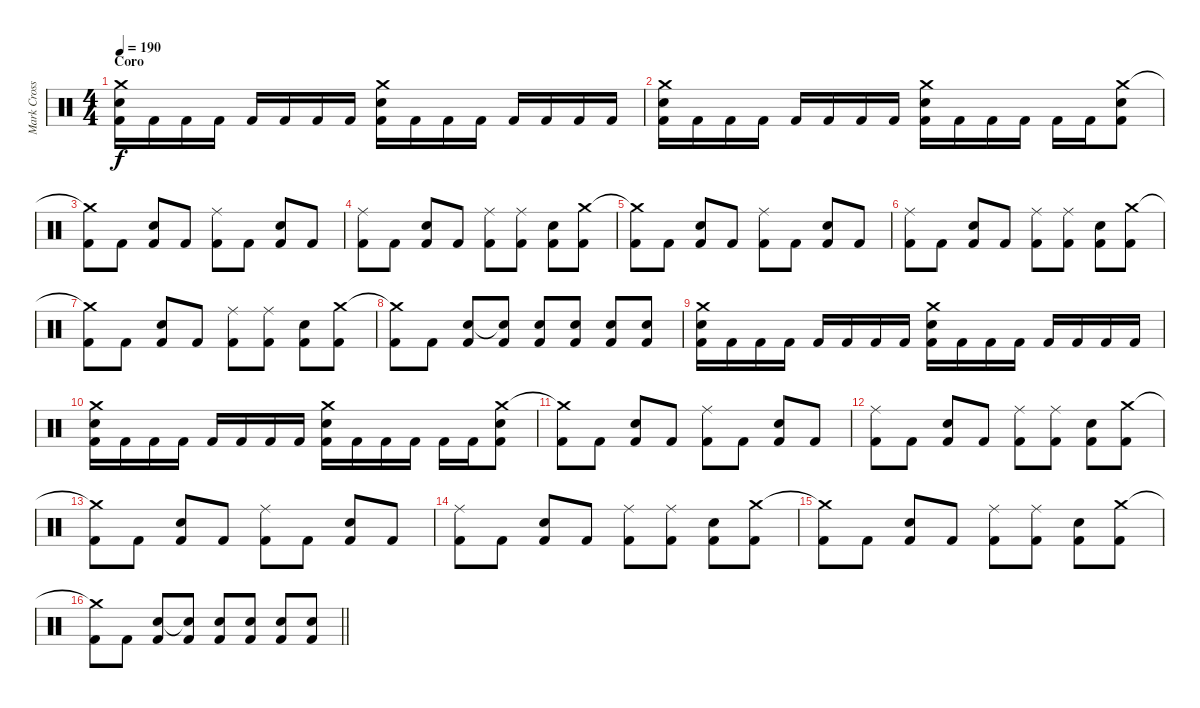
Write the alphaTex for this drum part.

\track ("Mark Cross" "Mark Cross") {instrument percussion}
\staff {score}
\articulation defaults
\ts (4 4)
\section ("" "Coro")
\tempo 190
\clef neutral
\ks c
("Crash medium (hit)" "Electric Snare (hit)" "Kick (hit) 2").16{dy f} "Kick (hit) 2".16 "Kick (hit) 2".16 "Kick (hit) 2".16 "Kick (hit) 2".16 "Kick (hit) 2".16 "Kick (hit) 2".16 "Kick (hit) 2".16 ("Crash medium (hit)" "Electric Snare (hit)" "Kick (hit) 2").16 "Kick (hit) 2".16 "Kick (hit) 2".16 "Kick (hit) 2".16 "Kick (hit) 2".16 "Kick (hit) 2".16 "Kick (hit) 2".16 "Kick (hit) 2".16 |
("Crash medium (hit)" "Electric Snare (hit)" "Kick (hit) 2").16 "Kick (hit) 2".16 "Kick (hit) 2".16 "Kick (hit) 2".16 "Kick (hit) 2".16 "Kick (hit) 2".16 "Kick (hit) 2".16 "Kick (hit) 2".16 ("Crash medium (hit)" "Electric Snare (hit)" "Kick (hit) 2").16 "Kick (hit) 2".16 "Kick (hit) 2".16 "Kick (hit) 2".16 "Kick (hit) 2".16 "Kick (hit) 2".16 ("Crash medium (hit)" "Electric Snare (hit)" "Kick (hit) 2").8 |
("Crash medium (hit)"{t} "Kick (hit) 2").8 "Kick (hit) 2".8 ("Electric Snare (hit)" "Kick (hit) 2").8 "Kick (hit) 2".8 ("Ride (middle)" "Kick (hit) 2").8 "Kick (hit) 2".8 ("Electric Snare (hit)" "Kick (hit) 2").8 "Kick (hit) 2".8 |
("Ride (middle)" "Kick (hit) 2").8 "Kick (hit) 2".8 ("Electric Snare (hit)" "Kick (hit) 2").8 "Kick (hit) 2".8 ("Ride (middle)" "Kick (hit) 2").8 ("Ride (middle)" "Kick (hit) 2").8 ("Electric Snare (hit)" "Kick (hit) 2").8 ("Crash medium (hit)" "Kick (hit) 2").8 |
("Crash medium (hit)"{t} "Kick (hit) 2").8 "Kick (hit) 2".8 ("Electric Snare (hit)" "Kick (hit) 2").8 "Kick (hit) 2".8 ("Ride (middle)" "Kick (hit) 2").8 "Kick (hit) 2".8 ("Electric Snare (hit)" "Kick (hit) 2").8 "Kick (hit) 2".8 |
("Ride (middle)" "Kick (hit) 2").8 "Kick (hit) 2".8 ("Electric Snare (hit)" "Kick (hit) 2").8 "Kick (hit) 2".8 ("Ride (middle)" "Kick (hit) 2").8 ("Ride (middle)" "Kick (hit) 2").8 ("Electric Snare (hit)" "Kick (hit) 2").8 ("Crash medium (hit)" "Kick (hit) 2").8 |
("Crash medium (hit)"{t} "Kick (hit) 2").8 "Kick (hit) 2".8 ("Electric Snare (hit)" "Kick (hit) 2").8 "Kick (hit) 2".8 ("Ride (middle)" "Kick (hit) 2").8 ("Ride (middle)" "Kick (hit) 2").8 ("Electric Snare (hit)" "Kick (hit) 2").8 ("Crash medium (hit)" "Kick (hit) 2").8 |
("Crash medium (hit)"{t} "Kick (hit) 2").8 "Kick (hit) 2".8 ("Electric Snare (hit)" "Kick (hit) 2").8 ("Electric Snare (hit)"{t} "Kick (hit) 2").8 ("Electric Snare (hit)" "Kick (hit) 2").8 ("Electric Snare (hit)" "Kick (hit) 2").8 ("Electric Snare (hit)" "Kick (hit) 2").8 ("Electric Snare (hit)" "Kick (hit) 2").8 |
("Crash medium (hit)" "Electric Snare (hit)" "Kick (hit) 2").16 "Kick (hit) 2".16 "Kick (hit) 2".16 "Kick (hit) 2".16 "Kick (hit) 2".16 "Kick (hit) 2".16 "Kick (hit) 2".16 "Kick (hit) 2".16 ("Crash medium (hit)" "Electric Snare (hit)" "Kick (hit) 2").16 "Kick (hit) 2".16 "Kick (hit) 2".16 "Kick (hit) 2".16 "Kick (hit) 2".16 "Kick (hit) 2".16 "Kick (hit) 2".16 "Kick (hit) 2".16 |
("Crash medium (hit)" "Electric Snare (hit)" "Kick (hit) 2").16 "Kick (hit) 2".16 "Kick (hit) 2".16 "Kick (hit) 2".16 "Kick (hit) 2".16 "Kick (hit) 2".16 "Kick (hit) 2".16 "Kick (hit) 2".16 ("Crash medium (hit)" "Electric Snare (hit)" "Kick (hit) 2").16 "Kick (hit) 2".16 "Kick (hit) 2".16 "Kick (hit) 2".16 "Kick (hit) 2".16 "Kick (hit) 2".16 ("Crash medium (hit)" "Electric Snare (hit)" "Kick (hit) 2").8 |
("Crash medium (hit)"{t} "Kick (hit) 2").8 "Kick (hit) 2".8 ("Electric Snare (hit)" "Kick (hit) 2").8 "Kick (hit) 2".8 ("Ride (middle)" "Kick (hit) 2").8 "Kick (hit) 2".8 ("Electric Snare (hit)" "Kick (hit) 2").8 "Kick (hit) 2".8 |
("Ride (middle)" "Kick (hit) 2").8 "Kick (hit) 2".8 ("Electric Snare (hit)" "Kick (hit) 2").8 "Kick (hit) 2".8 ("Ride (middle)" "Kick (hit) 2").8 ("Ride (middle)" "Kick (hit) 2").8 ("Electric Snare (hit)" "Kick (hit) 2").8 ("Crash medium (hit)" "Kick (hit) 2").8 |
("Crash medium (hit)"{t} "Kick (hit) 2").8 "Kick (hit) 2".8 ("Electric Snare (hit)" "Kick (hit) 2").8 "Kick (hit) 2".8 ("Ride (middle)" "Kick (hit) 2").8 "Kick (hit) 2".8 ("Electric Snare (hit)" "Kick (hit) 2").8 "Kick (hit) 2".8 |
("Ride (middle)" "Kick (hit) 2").8 "Kick (hit) 2".8 ("Electric Snare (hit)" "Kick (hit) 2").8 "Kick (hit) 2".8 ("Ride (middle)" "Kick (hit) 2").8 ("Ride (middle)" "Kick (hit) 2").8 ("Electric Snare (hit)" "Kick (hit) 2").8 ("Crash medium (hit)" "Kick (hit) 2").8 |
("Crash medium (hit)"{t} "Kick (hit) 2").8 "Kick (hit) 2".8 ("Electric Snare (hit)" "Kick (hit) 2").8 "Kick (hit) 2".8 ("Ride (middle)" "Kick (hit) 2").8 ("Ride (middle)" "Kick (hit) 2").8 ("Electric Snare (hit)" "Kick (hit) 2").8 ("Crash medium (hit)" "Kick (hit) 2").8 |
\barLineRight lightlight
("Crash medium (hit)"{t} "Kick (hit) 2").8 "Kick (hit) 2".8 ("Electric Snare (hit)" "Kick (hit) 2").8 ("Electric Snare (hit)"{t} "Kick (hit) 2").8 ("Electric Snare (hit)" "Kick (hit) 2").8 ("Electric Snare (hit)" "Kick (hit) 2").8 ("Electric Snare (hit)" "Kick (hit) 2").8 ("Electric Snare (hit)" "Kick (hit) 2").8
